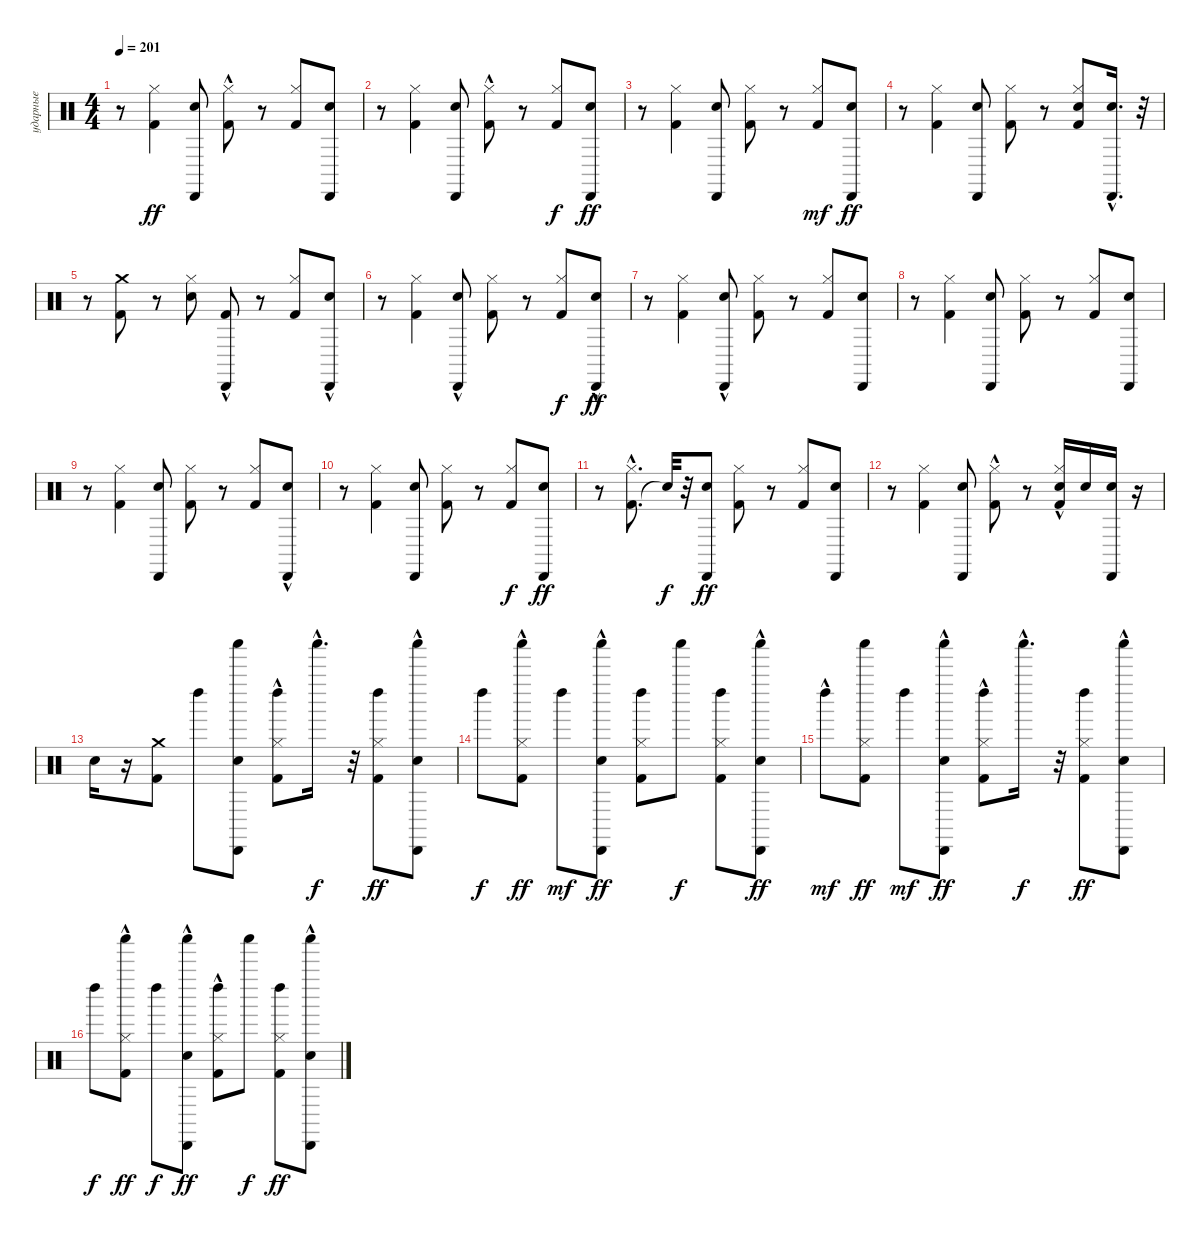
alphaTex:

\track ("ударные" "ударные") {instrument percussion}
\staff {score}
\articulation defaults
\ts (4 4)
\tempo 201
\clef neutral
\ks c
r.8{dy ff} ("Kick (hit) 2" "Hi-Hat (closed)").4 ("Electric Snare (hit)" "Cabasa (hit)").8 ("Kick (hit) 2" "Hi-Hat (closed)"{hac}).8 r.8 ("Kick (hit) 2" "Hi-Hat (closed)").8 ("Electric Snare (hit)" "Cabasa (hit)").8 |
r.8 ("Kick (hit) 2" "Hi-Hat (closed)").4 ("Electric Snare (hit)" "Cabasa (hit)").8 ("Kick (hit) 2" "Hi-Hat (closed)"{hac}).8 r.8 ("Kick (hit) 2" "Hi-Hat (closed)").8{dy f} ("Electric Snare (hit)" "Cabasa (hit)").8{dy ff} |
r.8 ("Kick (hit) 2" "Hi-Hat (closed)").4 ("Electric Snare (hit)" "Cabasa (hit)").8 ("Kick (hit) 2" "Hi-Hat (closed)").8 r.8 ("Kick (hit) 2" "Hi-Hat (closed)").8{dy mf} ("Electric Snare (hit)" "Cabasa (hit)").8{dy ff} |
r.8 ("Kick (hit) 2" "Hi-Hat (closed)").4 ("Electric Snare (hit)" "Cabasa (hit)").8 ("Kick (hit) 2" "Hi-Hat (closed)").8 r.8 ("Kick (hit) 2" "Electric Snare (hit)" "Hi-Hat (closed)").8 ("Electric Snare (hit)" "Cabasa (hit)"{hac}).16{d} r.32 |
r.8 ("Kick (hit) 2" "Crash medium (hit)").8 r.8 ("Electric Snare (hit)" "Hi-Hat (closed)").8 ("Kick (hit) 2" "Cabasa (hit)"{hac}).8 r.8 ("Kick (hit) 2" "Hi-Hat (closed)").8 ("Electric Snare (hit)" "Cabasa (hit)"{hac}).8 |
r.8 ("Kick (hit) 2" "Hi-Hat (closed)").4 ("Electric Snare (hit)" "Cabasa (hit)"{hac}).8 ("Kick (hit) 2" "Hi-Hat (closed)").8 r.8 ("Kick (hit) 2" "Hi-Hat (closed)").8{dy f} ("Electric Snare (hit)" "Cabasa (hit)"{hac}).8{dy ff} |
r.8 ("Kick (hit) 2" "Hi-Hat (closed)").4 ("Electric Snare (hit)" "Cabasa (hit)"{hac}).8 ("Kick (hit) 2" "Hi-Hat (closed)").8 r.8 ("Kick (hit) 2" "Hi-Hat (closed)").8 ("Electric Snare (hit)" "Cabasa (hit)").8 |
r.8 ("Kick (hit) 2" "Hi-Hat (closed)").4 ("Electric Snare (hit)" "Cabasa (hit)").8 ("Kick (hit) 2" "Hi-Hat (closed)").8 r.8 ("Kick (hit) 2" "Hi-Hat (closed)").8 ("Electric Snare (hit)" "Cabasa (hit)").8 |
r.8 ("Kick (hit) 2" "Hi-Hat (closed)").4 ("Electric Snare (hit)" "Cabasa (hit)").8 ("Kick (hit) 2" "Hi-Hat (closed)").8 r.8 ("Kick (hit) 2" "Hi-Hat (closed)").8 ("Electric Snare (hit)" "Cabasa (hit)"{hac}).8 |
r.8 ("Kick (hit) 2" "Hi-Hat (closed)").4 ("Electric Snare (hit)" "Cabasa (hit)").8 ("Kick (hit) 2" "Hi-Hat (closed)").8 r.8 ("Kick (hit) 2" "Hi-Hat (closed)").8{dy f} ("Electric Snare (hit)" "Cabasa (hit)").8{dy ff} |
r.8 ("Kick (hit) 2" "Hi-Hat (closed)"{hac}).8{d} "Snare (hit)"{t}.32{dy f} r.32 ("Electric Snare (hit)" "Cabasa (hit)").8{dy ff} ("Kick (hit) 2" "Hi-Hat (closed)").8 r.8 ("Kick (hit) 2" "Hi-Hat (closed)").8 ("Electric Snare (hit)" "Cabasa (hit)").8 |
r.8 ("Kick (hit) 2" "Hi-Hat (closed)").4 ("Electric Snare (hit)" "Cabasa (hit)").8 ("Kick (hit) 2" "Hi-Hat (closed)"{hac}).8 r.8 ("Kick (hit) 2" "Electric Snare (hit)" "Hi-Hat (closed)"{hac}).16 "Electric Snare (hit)".16 ("Electric Snare (hit)" "Cabasa (hit)").16 r.16 |
"Electric Snare (hit)".16 r.16 ("Kick (hit) 2" "Crash medium (hit)").8 "Left Maraca (hit)".8 ("Electric Snare (hit)" "Cabasa (hit)" "Shaker (hit)").8 ("Kick (hit) 2" "Hi-Hat (closed)"{hac} "Left Maraca (hit)").8 "Shaker (hit)"{hac}.16{d dy f} r.32 ("Kick (hit) 2" "Hi-Hat (closed)" "Left Maraca (hit)").8{dy ff} ("Electric Snare (hit)" "Cabasa (hit)" "Shaker (hit)"{hac}).8 |
"Left Maraca (hit)".8{dy f} ("Kick (hit) 2" "Hi-Hat (closed)" "Shaker (hit)"{hac}).8{dy ff} "Left Maraca (hit)".8{dy mf} ("Electric Snare (hit)" "Cabasa (hit)"{hac} "Shaker (hit)").8{dy ff} ("Kick (hit) 2" "Hi-Hat (closed)" "Left Maraca (hit)").8 "Shaker (hit)".8{dy f} ("Kick (hit) 2" "Hi-Hat (closed)" "Left Maraca (hit)").8 ("Electric Snare (hit)" "Cabasa (hit)"{hac} "Shaker (hit)").8{dy ff} |
"Left Maraca (hit)"{hac}.8{dy mf} ("Kick (hit) 2" "Hi-Hat (closed)" "Shaker (hit)").8{dy ff} "Left Maraca (hit)".8{dy mf} ("Electric Snare (hit)" "Cabasa (hit)" "Shaker (hit)"{hac}).8{dy ff} ("Kick (hit) 2" "Hi-Hat (closed)"{hac} "Left Maraca (hit)").8 "Shaker (hit)"{hac}.16{d dy f} r.32 ("Kick (hit) 2" "Hi-Hat (closed)" "Left Maraca (hit)").8{dy ff} ("Electric Snare (hit)" "Cabasa (hit)" "Shaker (hit)"{hac}).8 |
"Left Maraca (hit)".8{dy f} ("Kick (hit) 2" "Hi-Hat (closed)" "Shaker (hit)"{hac}).8{dy ff} "Left Maraca (hit)".8{dy f} ("Electric Snare (hit)" "Cabasa (hit)"{hac} "Shaker (hit)").8{dy ff} ("Kick (hit) 2" "Hi-Hat (closed)"{hac} "Left Maraca (hit)").8 "Shaker (hit)".8{dy f} ("Kick (hit) 2" "Hi-Hat (closed)" "Left Maraca (hit)").8{dy ff} ("Electric Snare (hit)" "Cabasa (hit)"{hac} "Shaker (hit)"{hac}).8
